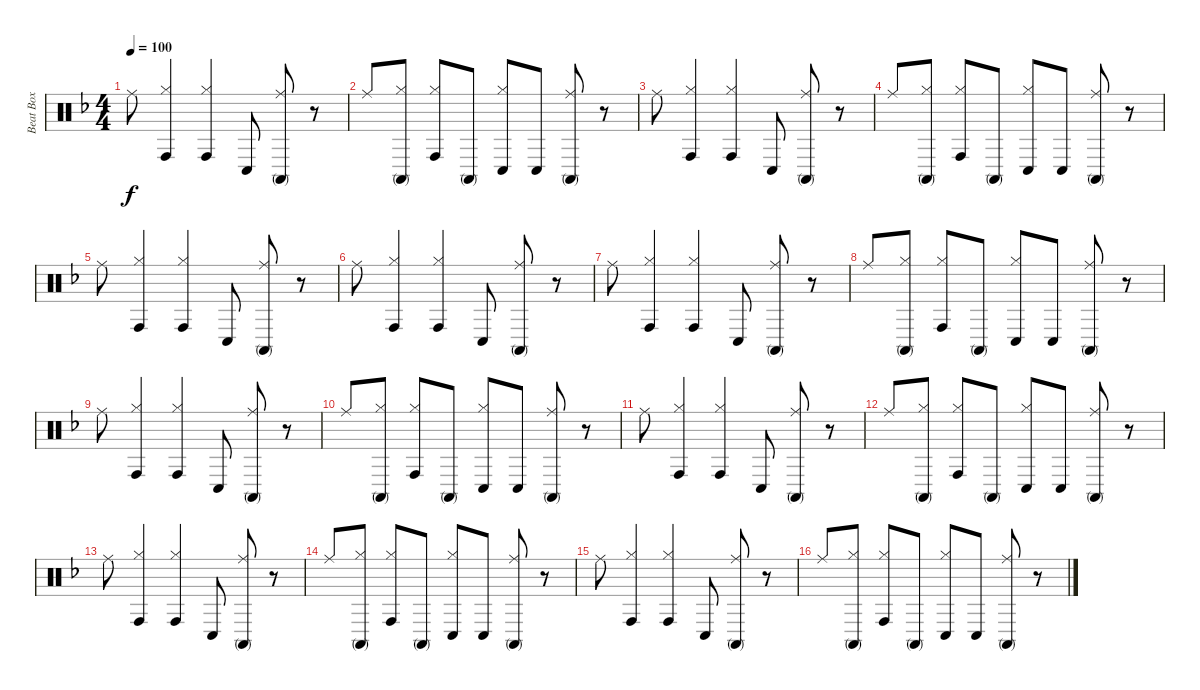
\track ("Beat Box" "Beat Box") {instrument percussion}
\staff {score}
\articulation defaults
\ts (4 4)
\tempo 100
\clef neutral
\ks dminor "Ride (middle)".8{dy f}
("Hi-Hat (closed)" "Conga high (hit)").4 ("Hi-Hat (closed)" "Conga high (hit)").4 "Conga low (hit)".8 ("Ride (middle)" "Conga high (mute)").8 r.8 |
"Ride (middle)".8 ("Hi-Hat (closed)" "Conga high (mute)").8 ("Hi-Hat (closed)" "Conga high (hit)").8 "Conga high (mute)".8 ("Hi-Hat (closed)" "Conga low (hit)").8 "Conga low (hit)".8 ("Ride (middle)" "Conga high (mute)").8 r.8 |
"Ride (middle)".8 ("Hi-Hat (closed)" "Conga high (hit)").4 ("Hi-Hat (closed)" "Conga high (hit)").4 "Conga low (hit)".8 ("Ride (middle)" "Conga high (mute)").8 r.8 |
"Ride (middle)".8 ("Hi-Hat (closed)" "Conga high (mute)").8 ("Hi-Hat (closed)" "Conga high (hit)").8 "Conga high (mute)".8 ("Hi-Hat (closed)" "Conga low (hit)").8 "Conga low (hit)".8 ("Ride (middle)" "Conga high (mute)").8 r.8 |
"Ride (middle)".8 ("Hi-Hat (closed)" "Conga high (hit)").4 ("Hi-Hat (closed)" "Conga high (hit)").4 "Conga low (hit)".8 ("Ride (middle)" "Conga high (mute)").8 r.8 |
"Ride (middle)".8 ("Hi-Hat (closed)" "Conga high (hit)").4 ("Hi-Hat (closed)" "Conga high (hit)").4 "Conga low (hit)".8 ("Ride (middle)" "Conga high (mute)").8 r.8 |
"Ride (middle)".8 ("Hi-Hat (closed)" "Conga high (hit)").4 ("Hi-Hat (closed)" "Conga high (hit)").4 "Conga low (hit)".8 ("Ride (middle)" "Conga high (mute)").8 r.8 |
"Ride (middle)".8 ("Hi-Hat (closed)" "Conga high (mute)").8 ("Hi-Hat (closed)" "Conga high (hit)").8 "Conga high (mute)".8 ("Hi-Hat (closed)" "Conga low (hit)").8 "Conga low (hit)".8 ("Ride (middle)" "Conga high (mute)").8 r.8 |
"Ride (middle)".8 ("Hi-Hat (closed)" "Conga high (hit)").4 ("Hi-Hat (closed)" "Conga high (hit)").4 "Conga low (hit)".8 ("Ride (middle)" "Conga high (mute)").8 r.8 |
"Ride (middle)".8 ("Hi-Hat (closed)" "Conga high (mute)").8 ("Hi-Hat (closed)" "Conga high (hit)").8 "Conga high (mute)".8 ("Hi-Hat (closed)" "Conga low (hit)").8 "Conga low (hit)".8 ("Ride (middle)" "Conga high (mute)").8 r.8 |
"Ride (middle)".8 ("Hi-Hat (closed)" "Conga high (hit)").4 ("Hi-Hat (closed)" "Conga high (hit)").4 "Conga low (hit)".8 ("Ride (middle)" "Conga high (mute)").8 r.8 |
"Ride (middle)".8 ("Hi-Hat (closed)" "Conga high (mute)").8 ("Hi-Hat (closed)" "Conga high (hit)").8 "Conga high (mute)".8 ("Hi-Hat (closed)" "Conga low (hit)").8 "Conga low (hit)".8 ("Ride (middle)" "Conga high (mute)").8 r.8 |
"Ride (middle)".8 ("Hi-Hat (closed)" "Conga high (hit)").4 ("Hi-Hat (closed)" "Conga high (hit)").4 "Conga low (hit)".8 ("Ride (middle)" "Conga high (mute)").8 r.8 |
"Ride (middle)".8 ("Hi-Hat (closed)" "Conga high (mute)").8 ("Hi-Hat (closed)" "Conga high (hit)").8 "Conga high (mute)".8 ("Hi-Hat (closed)" "Conga low (hit)").8 "Conga low (hit)".8 ("Ride (middle)" "Conga high (mute)").8 r.8 |
"Ride (middle)".8 ("Hi-Hat (closed)" "Conga high (hit)").4 ("Hi-Hat (closed)" "Conga high (hit)").4 "Conga low (hit)".8 ("Ride (middle)" "Conga high (mute)").8 r.8 |
"Ride (middle)".8 ("Hi-Hat (closed)" "Conga high (mute)").8 ("Hi-Hat (closed)" "Conga high (hit)").8 "Conga high (mute)".8 ("Hi-Hat (closed)" "Conga low (hit)").8 "Conga low (hit)".8 ("Ride (middle)" "Conga high (mute)").8 r.8
